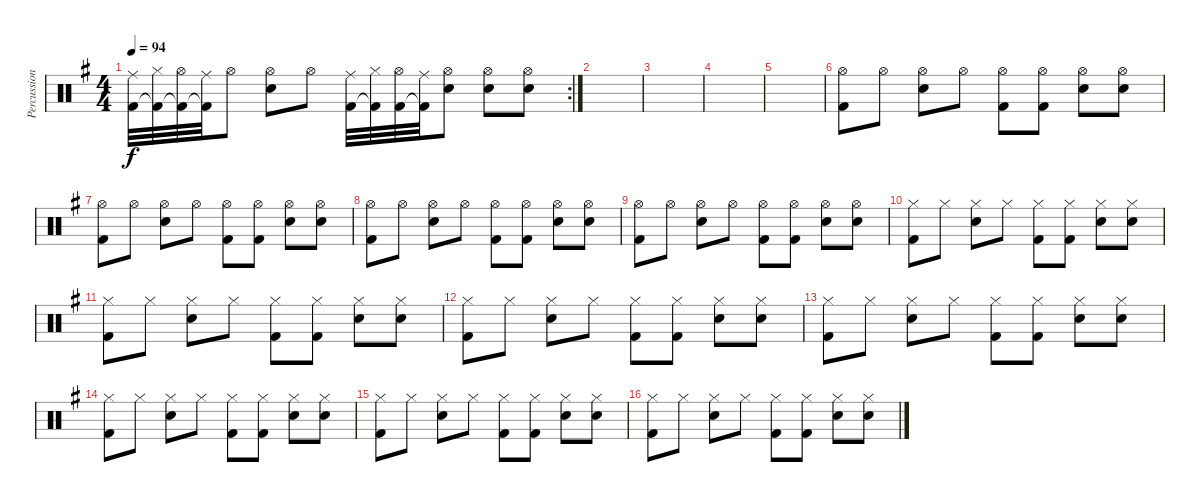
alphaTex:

\track ("Percussions" "Percussion") {instrument percussion}
\staff {score}
\articulation defaults
\rc 2
\ts (4 4)
\tempo 94
\clef neutral
\ks g
("Ride (middle)" "Kick (hit) 2").32{dy f} ("Hi-Hat (closed)" "Kick (hit) 2"{t}).32 ("Hi-Hat (open)" "Kick (hit) 2"{t}).32 ("Ride (middle)" "Kick (hit) 2"{t}).32 "Hi-Hat (open)".8 ("Hi-Hat (open)" "Snare (hit) 2").8 "Hi-Hat (open)".8 ("Ride (middle)" "Kick (hit) 2").32 ("Hi-Hat (closed)" "Kick (hit) 2"{t}).32 ("Hi-Hat (open)" "Kick (hit) 2").32 ("Ride (middle)" "Kick (hit) 2"{t}).32 ("Hi-Hat (open)" "Snare (hit) 2").8 ("Hi-Hat (open)" "Snare (hit) 2").8 ("Hi-Hat (open)" "Snare (hit) 2").8 |
|
|
|
|
("Hi-Hat (open)" "Kick (hit) 2").8 "Hi-Hat (open)".8 ("Hi-Hat (open)" "Snare (hit) 2").8 "Hi-Hat (open)".8 ("Hi-Hat (open)" "Kick (hit) 2").8 ("Hi-Hat (open)" "Kick (hit) 2").8 ("Hi-Hat (open)" "Snare (hit) 2").8 ("Hi-Hat (open)" "Snare (hit) 2").8 |
("Hi-Hat (open)" "Kick (hit) 2").8 "Hi-Hat (open)".8 ("Hi-Hat (open)" "Snare (hit) 2").8 "Hi-Hat (open)".8 ("Hi-Hat (open)" "Kick (hit) 2").8 ("Hi-Hat (open)" "Kick (hit) 2").8 ("Hi-Hat (open)" "Snare (hit) 2").8 ("Hi-Hat (open)" "Snare (hit) 2").8 |
("Hi-Hat (open)" "Kick (hit) 2").8 "Hi-Hat (open)".8 ("Hi-Hat (open)" "Snare (hit) 2").8 "Hi-Hat (open)".8 ("Hi-Hat (open)" "Kick (hit) 2").8 ("Hi-Hat (open)" "Kick (hit) 2").8 ("Hi-Hat (open)" "Snare (hit) 2").8 ("Hi-Hat (open)" "Snare (hit) 2").8 |
("Hi-Hat (open)" "Kick (hit) 2").8 "Hi-Hat (open)".8 ("Hi-Hat (open)" "Snare (hit) 2").8 "Hi-Hat (open)".8 ("Hi-Hat (open)" "Kick (hit) 2").8 ("Hi-Hat (open)" "Kick (hit) 2").8 ("Hi-Hat (open)" "Snare (hit) 2").8 ("Hi-Hat (open)" "Snare (hit) 2").8 |
("Hi-Hat (closed)" "Kick (hit) 2").8 "Hi-Hat (closed)".8 ("Hi-Hat (closed)" "Snare (hit) 2").8 "Hi-Hat (closed)".8 ("Hi-Hat (closed)" "Kick (hit) 2").8 ("Hi-Hat (closed)" "Kick (hit) 2").8 ("Hi-Hat (closed)" "Snare (hit) 2").8 ("Hi-Hat (closed)" "Snare (hit) 2").8 |
("Hi-Hat (closed)" "Kick (hit) 2").8 "Hi-Hat (closed)".8 ("Hi-Hat (closed)" "Snare (hit) 2").8 "Hi-Hat (closed)".8 ("Hi-Hat (closed)" "Kick (hit) 2").8 ("Hi-Hat (closed)" "Kick (hit) 2").8 ("Hi-Hat (closed)" "Snare (hit) 2").8 ("Hi-Hat (closed)" "Snare (hit) 2").8 |
("Hi-Hat (closed)" "Kick (hit) 2").8 "Hi-Hat (closed)".8 ("Hi-Hat (closed)" "Snare (hit) 2").8 "Hi-Hat (closed)".8 ("Hi-Hat (closed)" "Kick (hit) 2").8 ("Hi-Hat (closed)" "Kick (hit) 2").8 ("Hi-Hat (closed)" "Snare (hit) 2").8 ("Hi-Hat (closed)" "Snare (hit) 2").8 |
("Hi-Hat (closed)" "Kick (hit) 2").8 "Hi-Hat (closed)".8 ("Hi-Hat (closed)" "Snare (hit) 2").8 "Hi-Hat (closed)".8 ("Hi-Hat (closed)" "Kick (hit) 2").8 ("Hi-Hat (closed)" "Kick (hit) 2").8 ("Hi-Hat (closed)" "Snare (hit) 2").8 ("Hi-Hat (closed)" "Snare (hit) 2").8 |
("Hi-Hat (closed)" "Kick (hit) 2").8 "Hi-Hat (closed)".8 ("Hi-Hat (closed)" "Snare (hit) 2").8 "Hi-Hat (closed)".8 ("Hi-Hat (closed)" "Kick (hit) 2").8 ("Hi-Hat (closed)" "Kick (hit) 2").8 ("Hi-Hat (closed)" "Snare (hit) 2").8 ("Hi-Hat (closed)" "Snare (hit) 2").8 |
("Hi-Hat (closed)" "Kick (hit) 2").8 "Hi-Hat (closed)".8 ("Hi-Hat (closed)" "Snare (hit) 2").8 "Hi-Hat (closed)".8 ("Hi-Hat (closed)" "Kick (hit) 2").8 ("Hi-Hat (closed)" "Kick (hit) 2").8 ("Hi-Hat (closed)" "Snare (hit) 2").8 ("Hi-Hat (closed)" "Snare (hit) 2").8 |
("Hi-Hat (closed)" "Kick (hit) 2").8 "Hi-Hat (closed)".8 ("Hi-Hat (closed)" "Snare (hit) 2").8 "Hi-Hat (closed)".8 ("Hi-Hat (closed)" "Kick (hit) 2").8 ("Hi-Hat (closed)" "Kick (hit) 2").8 ("Hi-Hat (closed)" "Snare (hit) 2").8 ("Hi-Hat (closed)" "Snare (hit) 2").8
